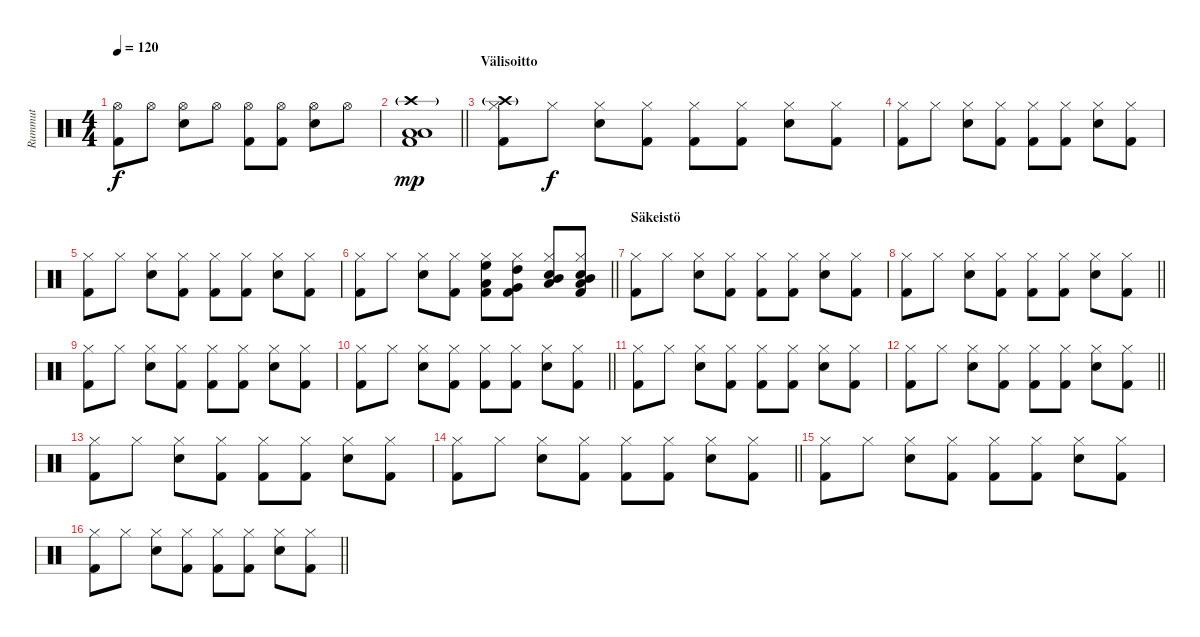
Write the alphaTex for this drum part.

\track ("Rummut" "Rummut") {instrument percussion}
\staff {score}
\articulation defaults
\ts (4 4)
\tempo 120
\clef neutral
\ks c
("Hi-Hat (open)" "Kick (hit) 2").8{dy f} "Hi-Hat (open)".8 ("Hi-Hat (open)" "Snare (hit) 2").8 "Hi-Hat (open)".8 ("Hi-Hat (open)" "Kick (hit) 2").8 ("Hi-Hat (open)" "Kick (hit) 2").8 ("Hi-Hat (open)" "Snare (hit) 2").8 "Hi-Hat (open)".8 |
\barLineRight lightlight
("Crash high (hit)"{g} "Low Tom (hit)" "Low Floor Tom (hit)" "Kick (hit) 2").1{dy mp} |
\section ("" "Välisoitto")
("Hi-Hat (closed)" "Kick (hit) 2" "Crash high (hit)"{g}).8 "Hi-Hat (closed)".8{dy f} ("Snare (hit) 2" "Hi-Hat (closed)").8 ("Kick (hit) 2" "Hi-Hat (closed)").8 ("Kick (hit) 2" "Hi-Hat (closed)").8 ("Kick (hit) 2" "Hi-Hat (closed)").8 ("Snare (hit) 2" "Hi-Hat (closed)").8 ("Kick (hit) 2" "Hi-Hat (closed)").8 |
("Hi-Hat (closed)" "Kick (hit) 2").8 "Hi-Hat (closed)".8 ("Snare (hit) 2" "Hi-Hat (closed)").8 ("Kick (hit) 2" "Hi-Hat (closed)").8 ("Kick (hit) 2" "Hi-Hat (closed)").8 ("Kick (hit) 2" "Hi-Hat (closed)").8 ("Snare (hit) 2" "Hi-Hat (closed)").8 ("Kick (hit) 2" "Hi-Hat (closed)").8 |
("Hi-Hat (closed)" "Kick (hit) 2").8 "Hi-Hat (closed)".8 ("Snare (hit) 2" "Hi-Hat (closed)").8 ("Kick (hit) 2" "Hi-Hat (closed)").8 ("Kick (hit) 2" "Hi-Hat (closed)").8 ("Kick (hit) 2" "Hi-Hat (closed)").8 ("Snare (hit) 2" "Hi-Hat (closed)").8 ("Kick (hit) 2" "Hi-Hat (closed)").8 |
\barLineRight lightlight
("Hi-Hat (closed)" "Kick (hit) 2").8 "Hi-Hat (closed)".8 ("Snare (hit) 2" "Hi-Hat (closed)").8 ("Kick (hit) 2" "Hi-Hat (closed)").8 ("Kick (hit) 2" "Hi-Hat (closed)" "High Floor Tom (hit)" "Low Floor Tom (hit)").8 ("Kick (hit) 2" "Hi-Hat (closed)" "High Tom (hit)" "Very Low Tom (hit)").8 ("Snare (hit) 2" "Hi-Hat (closed)" "Mid Tom (hit)" "Low Tom (hit)").8 ("Kick (hit) 2" "Hi-Hat (closed)" "Snare (hit) 2" "Low Tom (hit)" "Mid Tom (hit)").8 |
\section ("" "Säkeistö")
("Hi-Hat (closed)" "Kick (hit) 2").8 "Hi-Hat (closed)".8 ("Snare (hit) 2" "Hi-Hat (closed)").8 ("Kick (hit) 2" "Hi-Hat (closed)").8 ("Kick (hit) 2" "Hi-Hat (closed)").8 ("Kick (hit) 2" "Hi-Hat (closed)").8 ("Snare (hit) 2" "Hi-Hat (closed)").8 ("Kick (hit) 2" "Hi-Hat (closed)").8 |
\barLineRight lightlight
("Hi-Hat (closed)" "Kick (hit) 2").8 "Hi-Hat (closed)".8 ("Snare (hit) 2" "Hi-Hat (closed)").8 ("Kick (hit) 2" "Hi-Hat (closed)").8 ("Kick (hit) 2" "Hi-Hat (closed)").8 ("Kick (hit) 2" "Hi-Hat (closed)").8 ("Snare (hit) 2" "Hi-Hat (closed)").8 ("Kick (hit) 2" "Hi-Hat (closed)").8 |
("Hi-Hat (closed)" "Kick (hit) 2").8 "Hi-Hat (closed)".8 ("Snare (hit) 2" "Hi-Hat (closed)").8 ("Kick (hit) 2" "Hi-Hat (closed)").8 ("Kick (hit) 2" "Hi-Hat (closed)").8 ("Kick (hit) 2" "Hi-Hat (closed)").8 ("Snare (hit) 2" "Hi-Hat (closed)").8 ("Kick (hit) 2" "Hi-Hat (closed)").8 |
\barLineRight lightlight
("Hi-Hat (closed)" "Kick (hit) 2").8 "Hi-Hat (closed)".8 ("Snare (hit) 2" "Hi-Hat (closed)").8 ("Kick (hit) 2" "Hi-Hat (closed)").8 ("Kick (hit) 2" "Hi-Hat (closed)").8 ("Kick (hit) 2" "Hi-Hat (closed)").8 ("Snare (hit) 2" "Hi-Hat (closed)").8 ("Kick (hit) 2" "Hi-Hat (closed)").8 |
("Hi-Hat (closed)" "Kick (hit) 2").8 "Hi-Hat (closed)".8 ("Snare (hit) 2" "Hi-Hat (closed)").8 ("Kick (hit) 2" "Hi-Hat (closed)").8 ("Kick (hit) 2" "Hi-Hat (closed)").8 ("Kick (hit) 2" "Hi-Hat (closed)").8 ("Snare (hit) 2" "Hi-Hat (closed)").8 ("Kick (hit) 2" "Hi-Hat (closed)").8 |
\barLineRight lightlight
("Hi-Hat (closed)" "Kick (hit) 2").8 "Hi-Hat (closed)".8 ("Snare (hit) 2" "Hi-Hat (closed)").8 ("Kick (hit) 2" "Hi-Hat (closed)").8 ("Kick (hit) 2" "Hi-Hat (closed)").8 ("Kick (hit) 2" "Hi-Hat (closed)").8 ("Snare (hit) 2" "Hi-Hat (closed)").8 ("Kick (hit) 2" "Hi-Hat (closed)").8 |
("Hi-Hat (closed)" "Kick (hit) 2").8 "Hi-Hat (closed)".8 ("Snare (hit) 2" "Hi-Hat (closed)").8 ("Kick (hit) 2" "Hi-Hat (closed)").8 ("Kick (hit) 2" "Hi-Hat (closed)").8 ("Kick (hit) 2" "Hi-Hat (closed)").8 ("Snare (hit) 2" "Hi-Hat (closed)").8 ("Kick (hit) 2" "Hi-Hat (closed)").8 |
\barLineRight lightlight
("Hi-Hat (closed)" "Kick (hit) 2").8 "Hi-Hat (closed)".8 ("Snare (hit) 2" "Hi-Hat (closed)").8 ("Kick (hit) 2" "Hi-Hat (closed)").8 ("Kick (hit) 2" "Hi-Hat (closed)").8 ("Kick (hit) 2" "Hi-Hat (closed)").8 ("Snare (hit) 2" "Hi-Hat (closed)").8 ("Kick (hit) 2" "Hi-Hat (closed)").8 |
("Hi-Hat (closed)" "Kick (hit) 2").8 "Hi-Hat (closed)".8 ("Snare (hit) 2" "Hi-Hat (closed)").8 ("Kick (hit) 2" "Hi-Hat (closed)").8 ("Kick (hit) 2" "Hi-Hat (closed)").8 ("Kick (hit) 2" "Hi-Hat (closed)").8 ("Snare (hit) 2" "Hi-Hat (closed)").8 ("Kick (hit) 2" "Hi-Hat (closed)").8 |
\barLineRight lightlight
("Hi-Hat (closed)" "Kick (hit) 2").8 "Hi-Hat (closed)".8 ("Snare (hit) 2" "Hi-Hat (closed)").8 ("Kick (hit) 2" "Hi-Hat (closed)").8 ("Kick (hit) 2" "Hi-Hat (closed)").8 ("Kick (hit) 2" "Hi-Hat (closed)").8 ("Snare (hit) 2" "Hi-Hat (closed)").8 ("Kick (hit) 2" "Hi-Hat (closed)").8
